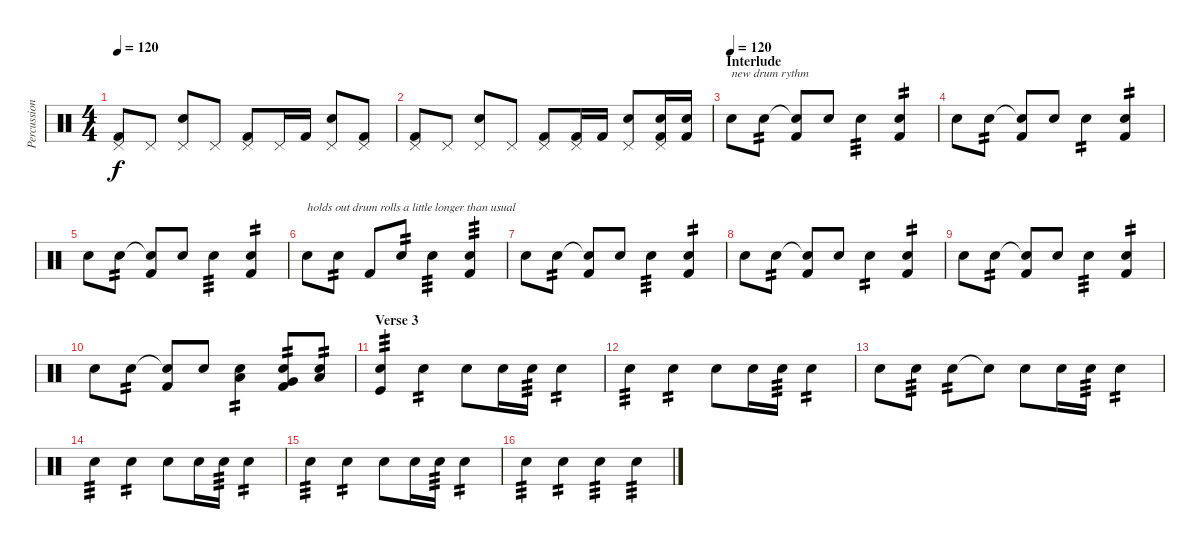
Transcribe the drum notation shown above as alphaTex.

\track ("Percussion" "Percussion") {instrument percussion}
\staff {score}
\articulation defaults
\ts (4 4)
\tempo 120
\clef neutral
\ks c
("Kick (hit) 2" "Pedal Hi-Hat (hit)").8{dy f} "Pedal Hi-Hat (hit)".8 ("Electric Snare (hit)" "Pedal Hi-Hat (hit)").8 "Pedal Hi-Hat (hit)".8 ("Kick (hit) 2" "Pedal Hi-Hat (hit)").8 "Pedal Hi-Hat (hit)".16 "Kick (hit) 2".16 ("Electric Snare (hit)" "Pedal Hi-Hat (hit)").8 ("Kick (hit) 2" "Pedal Hi-Hat (hit)").8 |
("Kick (hit) 2" "Pedal Hi-Hat (hit)").8 "Pedal Hi-Hat (hit)".8 ("Electric Snare (hit)" "Pedal Hi-Hat (hit)").8 "Pedal Hi-Hat (hit)".8 ("Kick (hit) 2" "Pedal Hi-Hat (hit)").8 ("Kick (hit) 2" "Pedal Hi-Hat (hit)").16 "Kick (hit) 2".16 ("Electric Snare (hit)" "Pedal Hi-Hat (hit)").8 ("Electric Snare (hit)" "Kick (hit) 2" "Pedal Hi-Hat (hit)").16 ("Electric Snare (hit)" "Kick (hit) 2").16 |
\section ("" "Interlude")
\tempo (120)
"Electric Snare (hit)".8{txt "new drum rythm"} "Electric Snare (hit)".8{tp 2} ("Snare (hit)"{t} "Kick (hit) 2").8 "Electric Snare (hit)".8{volume 6} "Electric Snare (hit)".4{tp 3 volume 11} ("Electric Snare (hit)" "Kick (hit) 2").4{tp 2} |
"Electric Snare (hit)".8 "Electric Snare (hit)".8{tp 2} ("Snare (hit)"{t} "Kick (hit) 2").8 "Electric Snare (hit)".8{volume 6} "Electric Snare (hit)".4{tp 2 volume 11} ("Electric Snare (hit)" "Kick (hit) 2").4{tp 2} |
"Electric Snare (hit)".8 "Electric Snare (hit)".8{tp 2} ("Snare (hit)"{t} "Kick (hit) 2").8 "Electric Snare (hit)".8{volume 6} "Electric Snare (hit)".4{tp 3 volume 11} ("Electric Snare (hit)" "Kick (hit) 2").4{tp 2} |
"Electric Snare (hit)".8{txt "holds out drum rolls a little longer than usual"} "Electric Snare (hit)".8{tp 2} "Kick (hit) 2".8 "Electric Snare (hit)".8{tp 2 volume 6} "Electric Snare (hit)".4{tp 3 volume 11} ("Electric Snare (hit)" "Kick (hit) 2").4{tp 3} |
"Electric Snare (hit)".8 "Electric Snare (hit)".8{tp 2} ("Snare (hit)"{t} "Kick (hit) 2").8 "Electric Snare (hit)".8{volume 6} "Electric Snare (hit)".4{tp 3 volume 11} ("Electric Snare (hit)" "Kick (hit) 2").4{tp 2} |
"Electric Snare (hit)".8 "Electric Snare (hit)".8{tp 2} ("Snare (hit)"{t} "Kick (hit) 2").8 "Electric Snare (hit)".8{volume 6} "Electric Snare (hit)".4{tp 2 volume 11} ("Electric Snare (hit)" "Kick (hit) 2").4{tp 2} |
"Electric Snare (hit)".8 "Electric Snare (hit)".8{tp 2} ("Snare (hit)"{t} "Kick (hit) 2").8 "Electric Snare (hit)".8{volume 6} "Electric Snare (hit)".4{tp 3 volume 11} ("Electric Snare (hit)" "Kick (hit) 2").4{tp 2} |
"Electric Snare (hit)".8 "Electric Snare (hit)".8{tp 2} ("Snare (hit)"{t} "Kick (hit) 2").8 "Electric Snare (hit)".8{volume 6} ("Electric Snare (hit)" "Low Tom (hit)").4{tp 2 volume 11} ("Electric Snare (hit)" "Very Low Tom (hit)" "Kick (hit) 2").8{tp 2} ("Electric Snare (hit)" "Low Floor Tom (hit)").8{tp 2} |
\section ("" "Verse 3")
("Electric Snare (hit)" "Kick (hit)").4{tp 3 volume 11} "Electric Snare (hit)".4{tp 2} "Electric Snare (hit)".8 "Electric Snare (hit)".16 "Electric Snare (hit)".16{tp 3} "Electric Snare (hit)".4{tp 2 volume 8} |
"Electric Snare (hit)".4{tp 3 volume 11} "Electric Snare (hit)".4{tp 2} "Electric Snare (hit)".8 "Electric Snare (hit)".16 "Electric Snare (hit)".16{tp 3} "Electric Snare (hit)".4{tp 2 volume 5} |
"Electric Snare (hit)".8 "Electric Snare (hit)".8{tp 3 volume 11} "Electric Snare (hit)".8{tp 2} "Snare (hit)"{t}.8 "Electric Snare (hit)".8 "Electric Snare (hit)".16 "Electric Snare (hit)".16{tp 3} "Electric Snare (hit)".4{tp 2 volume 5} |
"Electric Snare (hit)".4{tp 3 volume 11} "Electric Snare (hit)".4{tp 2} "Electric Snare (hit)".8 "Electric Snare (hit)".16 "Electric Snare (hit)".16{tp 3} "Electric Snare (hit)".4{tp 2 volume 5} |
"Electric Snare (hit)".4{tp 3 volume 11} "Electric Snare (hit)".4{tp 2} "Electric Snare (hit)".8 "Electric Snare (hit)".16 "Electric Snare (hit)".16{tp 3} "Electric Snare (hit)".4{tp 2 volume 5} |
"Electric Snare (hit)".4{tp 3 volume 11} "Electric Snare (hit)".4{tp 2} "Electric Snare (hit)".4{tp 3 volume 5} "Electric Snare (hit)".4{tp 3 volume 11}
